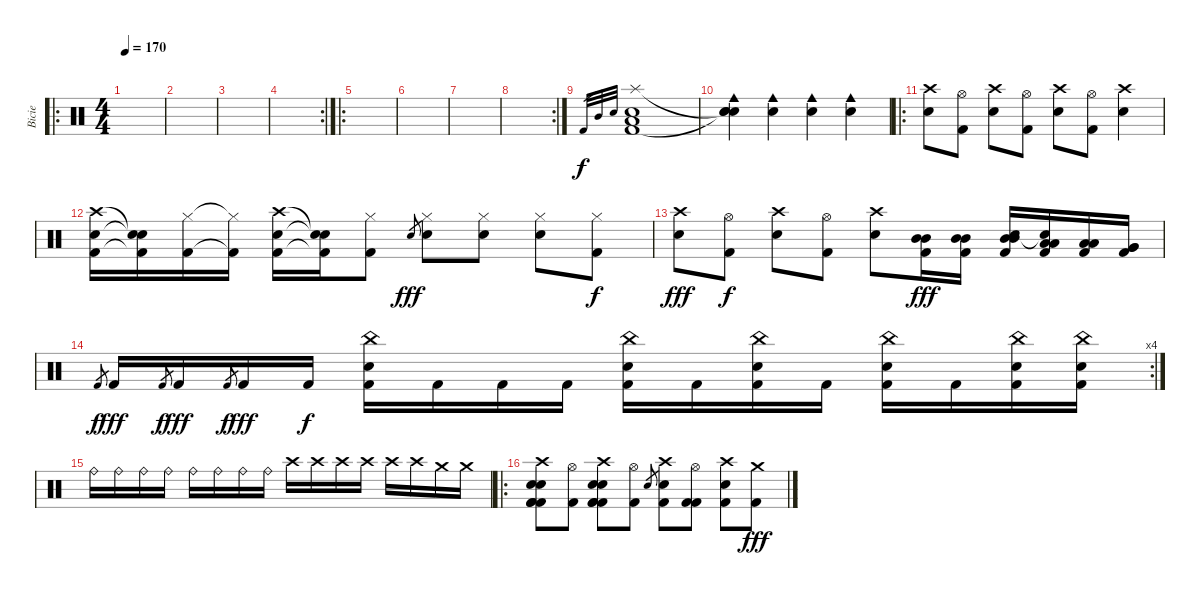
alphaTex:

\track ("Bicie" "Bicie") {instrument percussion}
\staff {score}
\articulation defaults
\ro
\ts (4 4)
\tempo 170
\clef neutral
\ks c
|
|
|
\rc 2
|
\ro
|
|
|
\rc 2
|
"Kick (hit) 2".32{gr} "Mid Tom (hit)".32{gr} "Electric Snare (hit)".32{gr} ("Kick (hit) 2" "Splash (hit)" "Low Floor Tom (hit)" "Electric Snare (hit)").1 |
("Snare (hit)"{t} "Snare (hit)"{t} "Cowbell medium (hit)" "Metronome (bell)").4{dy f} ("Cowbell medium (hit)" "Metronome (bell)").4 ("Cowbell medium (hit)" "Metronome (bell)").4 ("Cowbell medium (hit)" "Metronome (bell)").4 |
\ro
("Crash high (hit)" "Electric Snare (hit)").8 ("Hi-Hat (open)" "Kick (hit) 2").8 ("Crash high (hit)" "Electric Snare (hit)").8 ("Hi-Hat (open)" "Kick (hit) 2").8 ("Crash high (hit)" "Electric Snare (hit)").8 ("Hi-Hat (open)" "Kick (hit) 2").8 ("Crash high (hit)" "Electric Snare (hit)").4 |
("Crash high (hit)" "Kick (hit) 2" "Electric Snare (hit)").16 ("Snare (hit)"{t} "Kick (hit) 2"{t} "Electric Snare (hit)"{t}).16 ("Hi-Hat (closed)" "Kick (hit) 2").16 ("Hi-Hat (closed)"{t} "Kick (hit) 2"{t}).16 ("Crash high (hit)" "Kick (hit) 2" "Electric Snare (hit)").16 ("Snare (hit)"{t} "Kick (hit) 2"{t} "Electric Snare (hit)"{t}).16 ("Hi-Hat (closed)" "Kick (hit) 2").8 "Electric Snare (hit)".8{gr dy fff} ("Hi-Hat (closed)" "Electric Snare (hit)").8 ("Hi-Hat (closed)" "Electric Snare (hit)").8 ("Hi-Hat (closed)" "Electric Snare (hit)").8 ("Hi-Hat (closed)" "Kick (hit) 2").8{dy f} |
("Crash high (hit)" "Electric Snare (hit)").8{dy fff} ("Hi-Hat (open)" "Kick (hit) 2").8{dy f} ("Crash high (hit)" "Electric Snare (hit)").8 ("Hi-Hat (open)" "Kick (hit) 2").8 ("Crash high (hit)" "Electric Snare (hit)").8 ("Kick (hit) 2" "Mid Tom (hit)" "Mid Tom (hit)").16{dy fff} ("Kick (hit) 2" "Mid Tom (hit)" "Mid Tom (hit)").16 ("Kick (hit) 2" "Mid Tom (hit)" "Mid Tom (hit)" "Electric Snare (hit)").16 ("Kick (hit) 2" "Low Tom (hit)" "Low Tom (hit)" "Snare (hit)"{t}).16 ("Kick (hit) 2" "Low Tom (hit)" "Low Tom (hit)").16 ("Kick (hit) 2" "Very Low Tom (hit)" "Very Low Tom (hit)").16 |
\rc 4 "Kick (hit) 2".8{gr dy f} "Kick (hit) 2".16{dy fff} "Kick (hit) 2".8{gr dy f} "Kick (hit) 2".16{dy fff} "Kick (hit) 2".8{gr dy f} "Kick (hit) 2".16{dy fff} "Kick (hit) 2".16{dy f}
("China (hit)" "Electric Snare (hit)" "Kick (hit) 2").16 "Kick (hit) 2".16 "Kick (hit) 2".16 "Kick (hit) 2".16 ("China (hit)" "Electric Snare (hit)" "Kick (hit) 2").16 "Kick (hit) 2".16 ("China (hit)" "Electric Snare (hit)" "Kick (hit) 2").16 "Kick (hit) 2".16 ("China (hit)" "Electric Snare (hit)" "Kick (hit) 2").16 "Kick (hit) 2".16 ("China (hit)" "Electric Snare (hit)" "Kick (hit) 2").16 ("China (hit)" "Electric Snare (hit)" "Kick (hit) 2").16 |
"Ride (bell)".16 "Ride (bell)".16 "Ride (bell)".16 "Ride (bell)".16 "Ride (bell)".16 "Ride (bell)".16 "Ride (bell)".16 "Ride (bell)".16 "Crash high (hit)".16 "Crash high (hit)".16 "Crash high (hit)".16 "Crash high (hit)".16 "Crash high (hit)".16 "Crash high (hit)".16 "Crash medium (hit)".16 "Crash medium (hit)".16 |
\ro
("Crash high (hit)" "Electric Snare (hit)" "Kick (hit) 2" "Kick (hit) 2" "Kick (hit) 2" "Electric Snare (hit)").8 ("Hi-Hat (open)" "Kick (hit) 2").8 ("Crash high (hit)" "Electric Snare (hit)" "Kick (hit) 2" "Kick (hit) 2" "Kick (hit) 2" "Electric Snare (hit)").8 ("Hi-Hat (open)" "Kick (hit) 2").8 "Electric Snare (hit)".8{gr} ("Crash high (hit)" "Kick (hit) 2" "Electric Snare (hit)").8 ("Hi-Hat (open)" "Kick (hit) 2" "Kick (hit) 2").8 ("Crash high (hit)" "Kick (hit) 2" "Electric Snare (hit)").8 ("Crash medium (hit)" "Kick (hit) 2").8{dy fff}
